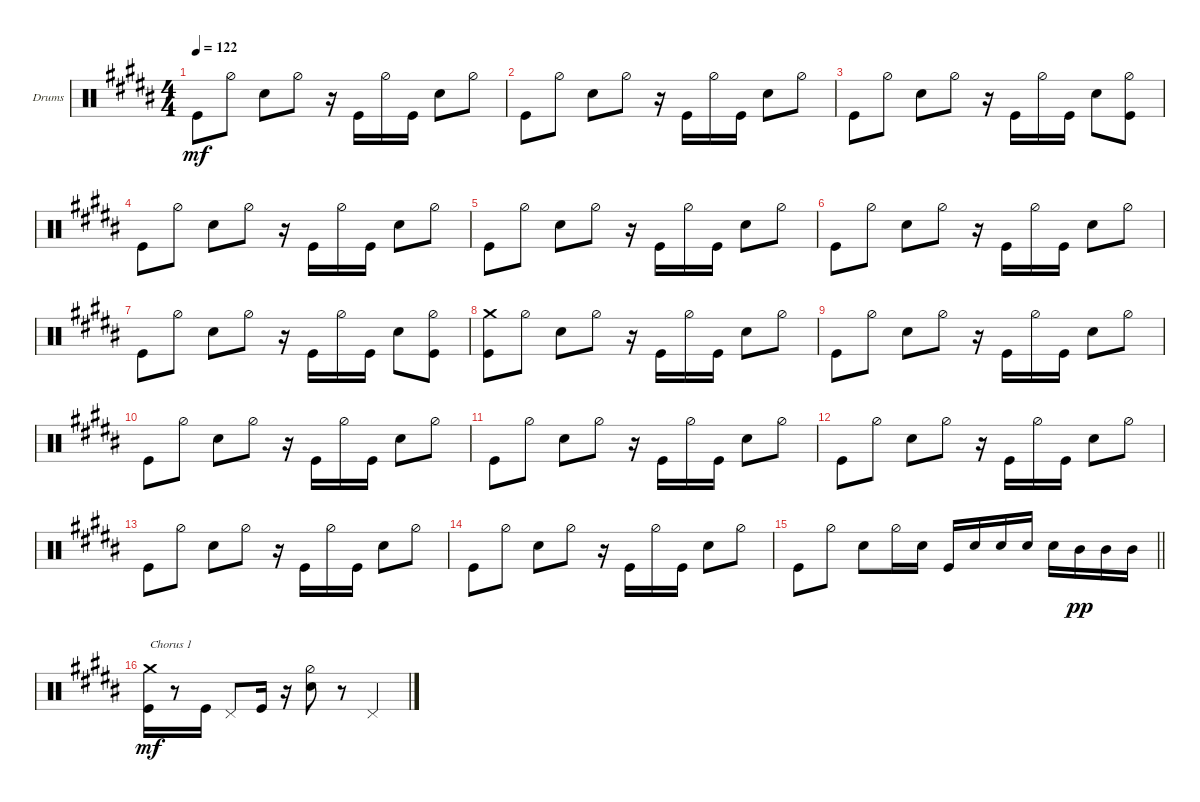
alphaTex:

\defaultSystemsLayout 4
\bracketExtendMode groupsimilarinstruments
\firstSystemTrackNameOrientation horizontal
\otherSystemsTrackNameOrientation horizontal
\track ("Drumkit" "Drums") {multiBarRest instrument percussion}
\staff {score}
\articulation defaults
\ts (4 4)
\tempo 122
\clef neutral
\ks b "Kick (hit)".8{dy mf} "Hi-Hat (half)".8 "Snare (hit) 2".8 "Hi-Hat (half)".8
r.16 "Kick (hit)".16 "Hi-Hat (half)".16 "Kick (hit)".16 "Snare (hit) 2".8 "Hi-Hat (half)".8 |
"Kick (hit)".8 "Hi-Hat (half)".8 "Snare (hit) 2".8 "Hi-Hat (half)".8 r.16 "Kick (hit)".16 "Hi-Hat (half)".16 "Kick (hit)".16 "Snare (hit) 2".8 "Hi-Hat (half)".8 |
"Kick (hit)".8 "Hi-Hat (half)".8 "Snare (hit) 2".8 "Hi-Hat (half)".8 r.16 "Kick (hit)".16 "Hi-Hat (half)".16 "Kick (hit)".16 "Snare (hit) 2".8 ("Kick (hit)" "Hi-Hat (half)").8 |
"Kick (hit)".8 "Hi-Hat (half)".8 "Snare (hit) 2".8 "Hi-Hat (half)".8 r.16 "Kick (hit)".16 "Hi-Hat (half)".16 "Kick (hit)".16 "Snare (hit) 2".8 "Hi-Hat (half)".8 |
"Kick (hit)".8 "Hi-Hat (half)".8 "Snare (hit) 2".8 "Hi-Hat (half)".8 r.16 "Kick (hit)".16 "Hi-Hat (half)".16 "Kick (hit)".16 "Snare (hit) 2".8 "Hi-Hat (half)".8 |
"Kick (hit)".8 "Hi-Hat (half)".8 "Snare (hit) 2".8 "Hi-Hat (half)".8 r.16 "Kick (hit)".16 "Hi-Hat (half)".16 "Kick (hit)".16 "Snare (hit) 2".8 "Hi-Hat (half)".8 |
"Kick (hit)".8 "Hi-Hat (half)".8 "Snare (hit) 2".8 "Hi-Hat (half)".8 r.16 "Kick (hit)".16 "Hi-Hat (half)".16 "Kick (hit)".16 "Snare (hit) 2".8 ("Kick (hit)" "Hi-Hat (half)").8 |
("Kick (hit)" "Crash medium (hit)").8 "Hi-Hat (half)".8 "Snare (hit) 2".8 "Hi-Hat (half)".8 r.16 "Kick (hit)".16 "Hi-Hat (half)".16 "Kick (hit)".16 "Snare (hit) 2".8 "Hi-Hat (half)".8 |
"Kick (hit)".8 "Hi-Hat (half)".8 "Snare (hit) 2".8 "Hi-Hat (half)".8 r.16 "Kick (hit)".16 "Hi-Hat (half)".16 "Kick (hit)".16 "Snare (hit) 2".8 "Hi-Hat (half)".8 |
"Kick (hit)".8 "Hi-Hat (half)".8 "Snare (hit) 2".8 "Hi-Hat (half)".8 r.16 "Kick (hit)".16 "Hi-Hat (half)".16 "Kick (hit)".16 "Snare (hit) 2".8 "Hi-Hat (half)".8 |
"Kick (hit)".8 "Hi-Hat (half)".8 "Snare (hit) 2".8 "Hi-Hat (half)".8 r.16 "Kick (hit)".16 "Hi-Hat (half)".16 "Kick (hit)".16 "Snare (hit) 2".8 "Hi-Hat (half)".8 |
"Kick (hit)".8 "Hi-Hat (half)".8 "Snare (hit) 2".8 "Hi-Hat (half)".8 r.16 "Kick (hit)".16 "Hi-Hat (half)".16 "Kick (hit)".16 "Snare (hit) 2".8 "Hi-Hat (half)".8 |
"Kick (hit)".8 "Hi-Hat (half)".8 "Snare (hit) 2".8 "Hi-Hat (half)".8 r.16 "Kick (hit)".16 "Hi-Hat (half)".16 "Kick (hit)".16 "Snare (hit) 2".8 "Hi-Hat (half)".8 |
"Kick (hit)".8 "Hi-Hat (half)".8 "Snare (hit) 2".8 "Hi-Hat (half)".8 r.16 "Kick (hit)".16 "Hi-Hat (half)".16 "Kick (hit)".16 "Snare (hit) 2".8 "Hi-Hat (half)".8 |
\barLineRight lightlight "Kick (hit)".8 "Hi-Hat (half)".8 "Snare (hit) 2".8 "Hi-Hat (half)".16 "Snare (hit) 2".16 "Kick (hit)".16 "Snare (hit) 2".16 "Snare (hit) 2".16 "Snare (hit) 2".16 "Snare (hit) 2".16 "Mid Tom (hit)".16{dy pp} "Mid Tom (hit)".16 "Mid Tom (hit)".16
|
("Kick (hit)" "Crash medium (hit)").16{txt "Chorus 1" dy mf} r.8 "Kick (hit)".16 "Pedal Hi-Hat (hit)".8 "Kick (hit)".16 r.16 ("Snare (hit) 2" "Hi-Hat (half)").8 r.8 "Pedal Hi-Hat (hit)".4
